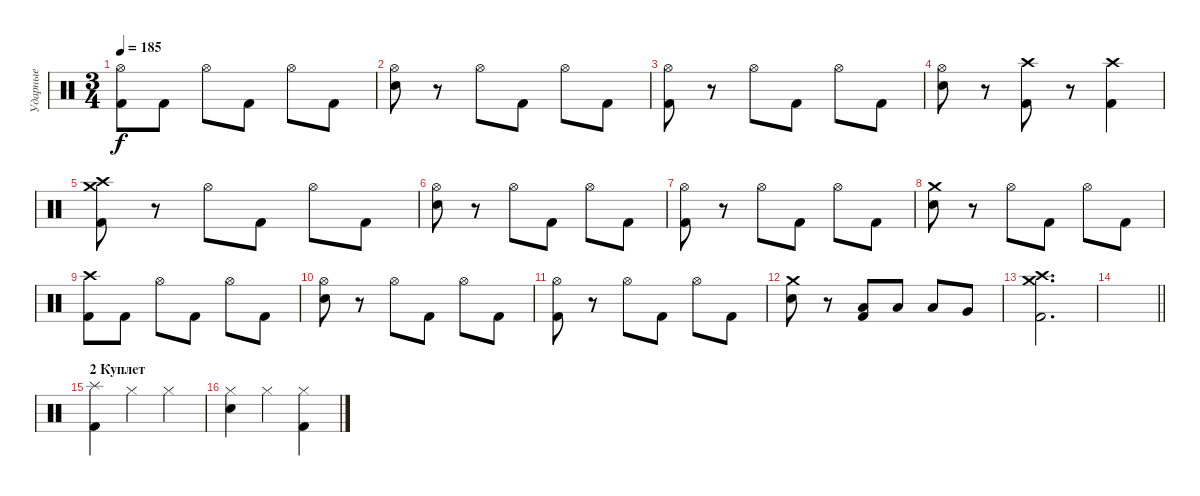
\track ("Ударные" "Ударные") {instrument percussion}
\staff {score}
\articulation defaults
\ts (3 4)
\tempo 185
\clef neutral
\ks c
("Hi-Hat (open)" "Kick (hit) 2").8{dy f} "Kick (hit) 2".8 "Hi-Hat (open)".8 "Kick (hit) 2".8 "Hi-Hat (open)".8 "Kick (hit) 2".8 |
("Hi-Hat (open)" "Snare (hit) 2").8 r.8 "Hi-Hat (open)".8 "Kick (hit) 2".8 "Hi-Hat (open)".8 "Kick (hit) 2".8 |
("Hi-Hat (open)" "Kick (hit) 2").8 r.8 "Hi-Hat (open)".8 "Kick (hit) 2".8 "Hi-Hat (open)".8 "Kick (hit) 2".8 |
("Hi-Hat (open)" "Snare (hit) 2").8 r.8 ("Crash high (hit)" "Kick (hit) 2").8 r.8 ("Crash high (hit)" "Kick (hit) 2").4 |
("Crash high (hit)" "Crash medium (hit)" "Kick (hit) 2").8 r.8 "Hi-Hat (open)".8 "Kick (hit) 2".8 "Hi-Hat (open)".8 "Kick (hit) 2".8 |
("Hi-Hat (open)" "Snare (hit) 2").8 r.8 "Hi-Hat (open)".8 "Kick (hit) 2".8 "Hi-Hat (open)".8 "Kick (hit) 2".8 |
("Hi-Hat (open)" "Kick (hit) 2").8 r.8 "Hi-Hat (open)".8 "Kick (hit) 2".8 "Hi-Hat (open)".8 "Kick (hit) 2".8 |
("Crash medium (hit)" "Snare (hit) 2").8 r.8 "Hi-Hat (open)".8 "Kick (hit) 2".8 "Hi-Hat (open)".8 "Kick (hit) 2".8 |
("Crash high (hit)" "Kick (hit) 2").8 "Kick (hit) 2".8 "Hi-Hat (open)".8 "Kick (hit) 2".8 "Hi-Hat (open)".8 "Kick (hit) 2".8 |
("Hi-Hat (open)" "Snare (hit) 2").8 r.8 "Hi-Hat (open)".8 "Kick (hit) 2".8 "Hi-Hat (open)".8 "Kick (hit) 2".8 |
("Hi-Hat (open)" "Kick (hit) 2").8 r.8 "Hi-Hat (open)".8 "Kick (hit) 2".8 "Hi-Hat (open)".8 "Kick (hit) 2".8 |
("Crash medium (hit)" "Snare (hit) 2").8 r.8 ("Low Floor Tom (hit)" "Kick (hit) 2").8 "Low Floor Tom (hit)".8 "Low Tom (hit)".8 "Very Low Tom (hit)".8 |
("Crash high (hit)" "Crash medium (hit)" "Kick (hit) 2").2{d} |
\barLineRight lightlight
|
\section ("" "2 Куплет")
("Splash (hit)" "Kick (hit) 2").4 "Hi-Hat (closed)".4 "Hi-Hat (closed)".4 |
("Hi-Hat (closed)" "Snare (hit) 2").4 "Hi-Hat (closed)".4 ("Hi-Hat (closed)" "Kick (hit) 2").4
